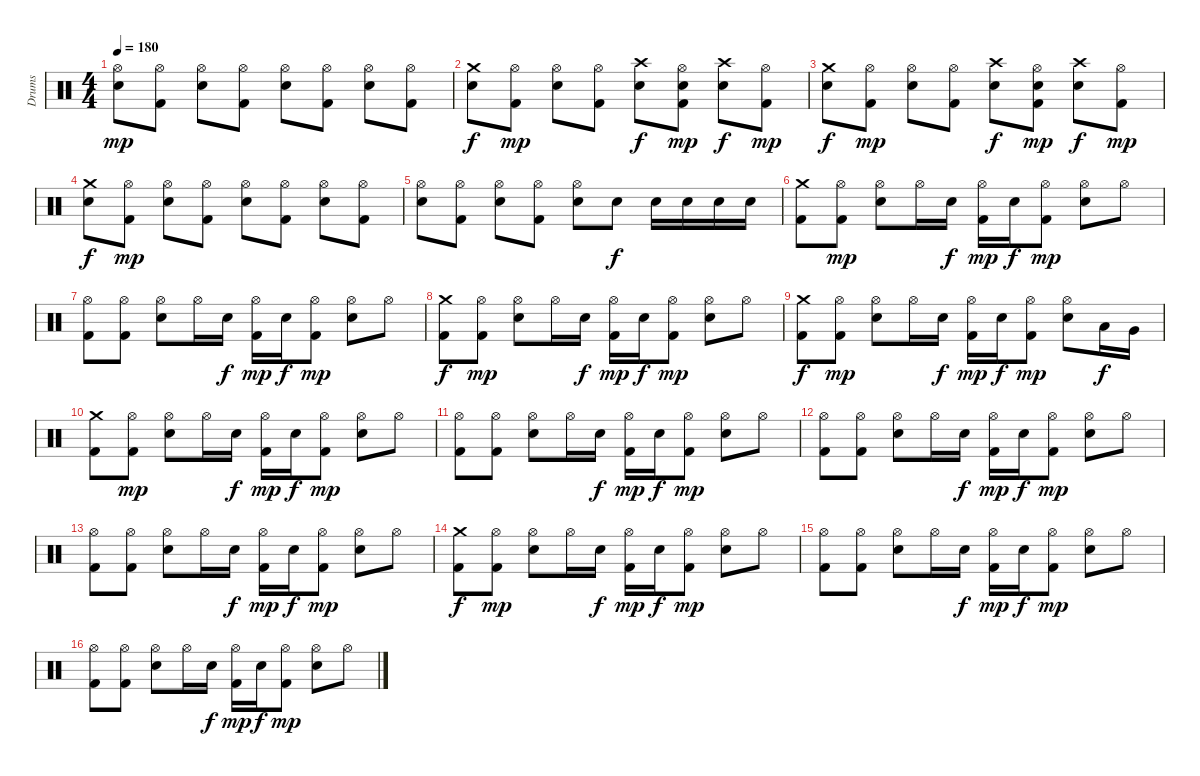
\track ("Drums" "Drums") {instrument percussion}
\staff {score}
\articulation defaults
\ts (4 4)
\tempo 180
\clef neutral
\ks c
("Hi-Hat (open)" "Snare (hit) 2").8{dy mp} ("Hi-Hat (open)" "Kick (hit) 2").8 ("Hi-Hat (open)" "Snare (hit) 2").8 ("Hi-Hat (open)" "Kick (hit) 2").8 ("Hi-Hat (open)" "Snare (hit) 2").8 ("Hi-Hat (open)" "Kick (hit) 2").8 ("Hi-Hat (open)" "Snare (hit) 2").8 ("Hi-Hat (open)" "Kick (hit) 2").8 |
("Crash medium (hit)" "Snare (hit) 2").8{dy f} ("Hi-Hat (open)" "Kick (hit) 2").8{dy mp} ("Hi-Hat (open)" "Snare (hit) 2").8 ("Hi-Hat (open)" "Kick (hit) 2").8 ("Crash high (hit)" "Snare (hit) 2").8{dy f} ("Hi-Hat (open)" "Snare (hit) 2" "Kick (hit) 2").8{dy mp} ("Crash high (hit)" "Snare (hit) 2").8{dy f} ("Hi-Hat (open)" "Kick (hit) 2").8{dy mp} |
("Crash medium (hit)" "Snare (hit) 2").8{dy f} ("Hi-Hat (open)" "Kick (hit) 2").8{dy mp} ("Hi-Hat (open)" "Snare (hit) 2").8 ("Hi-Hat (open)" "Kick (hit) 2").8 ("Crash high (hit)" "Snare (hit) 2").8{dy f} ("Hi-Hat (open)" "Snare (hit) 2" "Kick (hit) 2").8{dy mp} ("Crash high (hit)" "Snare (hit) 2").8{dy f} ("Hi-Hat (open)" "Kick (hit) 2").8{dy mp} |
("Crash medium (hit)" "Snare (hit) 2").8{dy f} ("Hi-Hat (open)" "Kick (hit) 2").8{dy mp} ("Hi-Hat (open)" "Snare (hit) 2").8 ("Hi-Hat (open)" "Kick (hit) 2").8 ("Hi-Hat (open)" "Snare (hit) 2").8 ("Hi-Hat (open)" "Kick (hit) 2").8 ("Hi-Hat (open)" "Snare (hit) 2").8 ("Hi-Hat (open)" "Kick (hit) 2").8 |
("Hi-Hat (open)" "Snare (hit) 2").8 ("Hi-Hat (open)" "Kick (hit) 2").8 ("Hi-Hat (open)" "Snare (hit) 2").8 ("Hi-Hat (open)" "Kick (hit) 2").8 ("Hi-Hat (open)" "Snare (hit) 2").8 "Snare (hit) 2".8{dy f} "Snare (hit) 2".16 "Snare (hit) 2".16 "Snare (hit) 2".16 "Snare (hit) 2".16 |
("Crash medium (hit)" "Kick (hit) 2").8 ("Hi-Hat (open)" "Kick (hit) 2").8{dy mp} ("Hi-Hat (open)" "Snare (hit) 2").8 "Hi-Hat (open)".16 "Snare (hit) 2".16{dy f} ("Hi-Hat (open)" "Kick (hit) 2").16{dy mp} "Snare (hit) 2".16{dy f} ("Hi-Hat (open)" "Kick (hit) 2").8{dy mp} ("Hi-Hat (open)" "Snare (hit) 2").8 "Hi-Hat (open)".8 |
("Hi-Hat (open)" "Kick (hit) 2").8 ("Hi-Hat (open)" "Kick (hit) 2").8 ("Hi-Hat (open)" "Snare (hit) 2").8 "Hi-Hat (open)".16 "Snare (hit) 2".16{dy f} ("Hi-Hat (open)" "Kick (hit) 2").16{dy mp} "Snare (hit) 2".16{dy f} ("Hi-Hat (open)" "Kick (hit) 2").8{dy mp} ("Hi-Hat (open)" "Snare (hit) 2").8 "Hi-Hat (open)".8 |
("Crash medium (hit)" "Kick (hit) 2").8{dy f} ("Hi-Hat (open)" "Kick (hit) 2").8{dy mp} ("Hi-Hat (open)" "Snare (hit) 2").8 "Hi-Hat (open)".16 "Snare (hit) 2".16{dy f} ("Hi-Hat (open)" "Kick (hit) 2").16{dy mp} "Snare (hit) 2".16{dy f} ("Hi-Hat (open)" "Kick (hit) 2").8{dy mp} ("Hi-Hat (open)" "Snare (hit) 2").8 "Hi-Hat (open)".8 |
("Crash medium (hit)" "Kick (hit) 2").8{dy f} ("Hi-Hat (open)" "Kick (hit) 2").8{dy mp} ("Hi-Hat (open)" "Snare (hit) 2").8 "Hi-Hat (open)".16 "Snare (hit) 2".16{dy f} ("Hi-Hat (open)" "Kick (hit) 2").16{dy mp} "Snare (hit) 2".16{dy f} ("Hi-Hat (open)" "Kick (hit) 2").8{dy mp} ("Hi-Hat (open)" "Snare (hit) 2").8 "Low Tom (hit)".16{dy f} "Very Low Tom (hit)".16 |
("Crash medium (hit)" "Kick (hit) 2").8 ("Hi-Hat (open)" "Kick (hit) 2").8{dy mp} ("Hi-Hat (open)" "Snare (hit) 2").8 "Hi-Hat (open)".16 "Snare (hit) 2".16{dy f} ("Hi-Hat (open)" "Kick (hit) 2").16{dy mp} "Snare (hit) 2".16{dy f} ("Hi-Hat (open)" "Kick (hit) 2").8{dy mp} ("Hi-Hat (open)" "Snare (hit) 2").8 "Hi-Hat (open)".8 |
("Hi-Hat (open)" "Kick (hit) 2").8 ("Hi-Hat (open)" "Kick (hit) 2").8 ("Hi-Hat (open)" "Snare (hit) 2").8 "Hi-Hat (open)".16 "Snare (hit) 2".16{dy f} ("Hi-Hat (open)" "Kick (hit) 2").16{dy mp} "Snare (hit) 2".16{dy f} ("Hi-Hat (open)" "Kick (hit) 2").8{dy mp} ("Hi-Hat (open)" "Snare (hit) 2").8 "Hi-Hat (open)".8 |
("Hi-Hat (open)" "Kick (hit) 2").8 ("Hi-Hat (open)" "Kick (hit) 2").8 ("Hi-Hat (open)" "Snare (hit) 2").8 "Hi-Hat (open)".16 "Snare (hit) 2".16{dy f} ("Hi-Hat (open)" "Kick (hit) 2").16{dy mp} "Snare (hit) 2".16{dy f} ("Hi-Hat (open)" "Kick (hit) 2").8{dy mp} ("Hi-Hat (open)" "Snare (hit) 2").8 "Hi-Hat (open)".8 |
("Hi-Hat (open)" "Kick (hit) 2").8 ("Hi-Hat (open)" "Kick (hit) 2").8 ("Hi-Hat (open)" "Snare (hit) 2").8 "Hi-Hat (open)".16 "Snare (hit) 2".16{dy f} ("Hi-Hat (open)" "Kick (hit) 2").16{dy mp} "Snare (hit) 2".16{dy f} ("Hi-Hat (open)" "Kick (hit) 2").8{dy mp} ("Hi-Hat (open)" "Snare (hit) 2").8 "Hi-Hat (open)".8 |
("Crash medium (hit)" "Kick (hit) 2").8{dy f} ("Hi-Hat (open)" "Kick (hit) 2").8{dy mp} ("Hi-Hat (open)" "Snare (hit) 2").8 "Hi-Hat (open)".16 "Snare (hit) 2".16{dy f} ("Hi-Hat (open)" "Kick (hit) 2").16{dy mp} "Snare (hit) 2".16{dy f} ("Hi-Hat (open)" "Kick (hit) 2").8{dy mp} ("Hi-Hat (open)" "Snare (hit) 2").8 "Hi-Hat (open)".8 |
("Hi-Hat (open)" "Kick (hit) 2").8 ("Hi-Hat (open)" "Kick (hit) 2").8 ("Hi-Hat (open)" "Snare (hit) 2").8 "Hi-Hat (open)".16 "Snare (hit) 2".16{dy f} ("Hi-Hat (open)" "Kick (hit) 2").16{dy mp} "Snare (hit) 2".16{dy f} ("Hi-Hat (open)" "Kick (hit) 2").8{dy mp} ("Hi-Hat (open)" "Snare (hit) 2").8 "Hi-Hat (open)".8 |
("Hi-Hat (open)" "Kick (hit) 2").8 ("Hi-Hat (open)" "Kick (hit) 2").8 ("Hi-Hat (open)" "Snare (hit) 2").8 "Hi-Hat (open)".16 "Snare (hit) 2".16{dy f} ("Hi-Hat (open)" "Kick (hit) 2").16{dy mp} "Snare (hit) 2".16{dy f} ("Hi-Hat (open)" "Kick (hit) 2").8{dy mp} ("Hi-Hat (open)" "Snare (hit) 2").8 "Hi-Hat (open)".8
